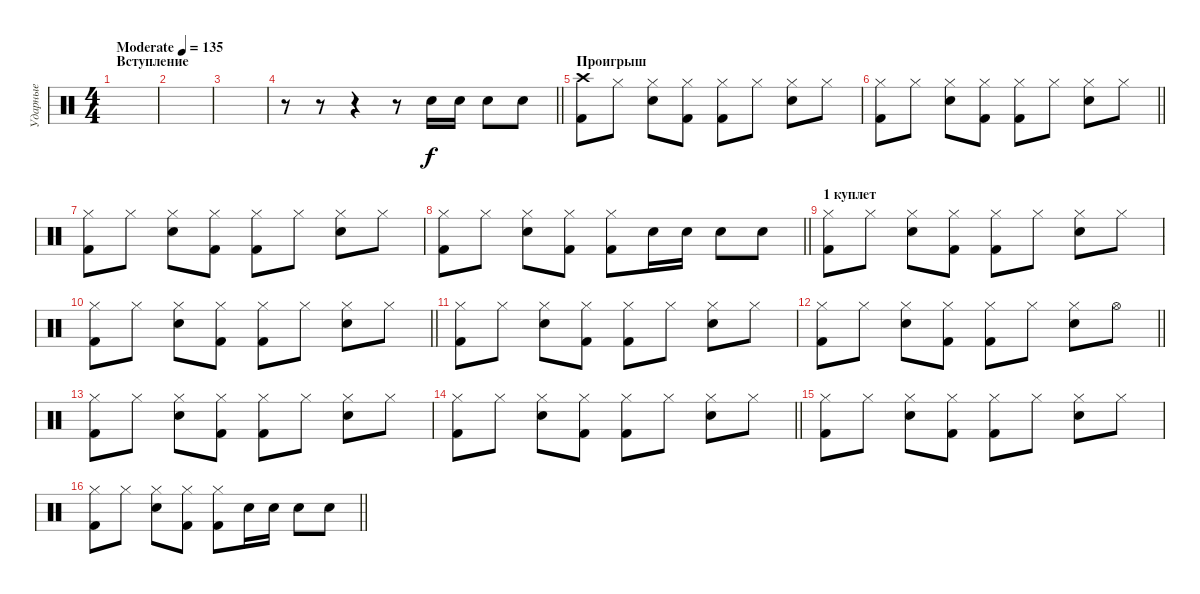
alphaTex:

\track ("Ударные" "Ударные") {instrument percussion}
\staff {score}
\articulation defaults
\ts (4 4)
\section ("" "Вступление")
\tempo (135 "Moderate")
\clef neutral
\ks c
|
|
|
\barLineRight lightlight
r.8 r.8 r.4 r.8 "Snare (hit) 2".16 "Snare (hit) 2".16 "Snare (hit) 2".8 "Snare (hit) 2".8 |
\section ("" "Проигрыш")
("Crash high (hit)" "Kick (hit) 2").8 "Hi-Hat (closed)".8 ("Hi-Hat (closed)" "Snare (hit) 2").8 ("Hi-Hat (closed)" "Kick (hit) 2").8 ("Hi-Hat (closed)" "Kick (hit) 2").8 "Hi-Hat (closed)".8 ("Hi-Hat (closed)" "Snare (hit) 2").8 "Hi-Hat (closed)".8 |
\barLineRight lightlight
("Hi-Hat (closed)" "Kick (hit) 2").8 "Hi-Hat (closed)".8 ("Hi-Hat (closed)" "Snare (hit) 2").8 ("Hi-Hat (closed)" "Kick (hit) 2").8 ("Hi-Hat (closed)" "Kick (hit) 2").8 "Hi-Hat (closed)".8 ("Hi-Hat (closed)" "Snare (hit) 2").8 "Hi-Hat (closed)".8 |
("Hi-Hat (closed)" "Kick (hit) 2").8 "Hi-Hat (closed)".8 ("Hi-Hat (closed)" "Snare (hit) 2").8 ("Hi-Hat (closed)" "Kick (hit) 2").8 ("Hi-Hat (closed)" "Kick (hit) 2").8 "Hi-Hat (closed)".8 ("Hi-Hat (closed)" "Snare (hit) 2").8 "Hi-Hat (closed)".8 |
\barLineRight lightlight
("Hi-Hat (closed)" "Kick (hit) 2").8 "Hi-Hat (closed)".8 ("Hi-Hat (closed)" "Snare (hit) 2").8 ("Hi-Hat (closed)" "Kick (hit) 2").8 ("Hi-Hat (closed)" "Kick (hit) 2").8 "Snare (hit) 2".16 "Snare (hit) 2".16 "Snare (hit) 2".8 "Snare (hit) 2".8 |
\section ("" "1 куплет")
("Hi-Hat (closed)" "Kick (hit) 2").8 "Hi-Hat (closed)".8 ("Hi-Hat (closed)" "Snare (hit) 2").8 ("Hi-Hat (closed)" "Kick (hit) 2").8 ("Hi-Hat (closed)" "Kick (hit) 2").8 "Hi-Hat (closed)".8 ("Hi-Hat (closed)" "Snare (hit) 2").8 "Hi-Hat (closed)".8 |
\barLineRight lightlight
("Hi-Hat (closed)" "Kick (hit) 2").8 "Hi-Hat (closed)".8 ("Hi-Hat (closed)" "Snare (hit) 2").8 ("Hi-Hat (closed)" "Kick (hit) 2").8 ("Hi-Hat (closed)" "Kick (hit) 2").8 "Hi-Hat (closed)".8 ("Hi-Hat (closed)" "Snare (hit) 2").8 "Hi-Hat (closed)".8 |
("Hi-Hat (closed)" "Kick (hit) 2").8 "Hi-Hat (closed)".8 ("Hi-Hat (closed)" "Snare (hit) 2").8 ("Hi-Hat (closed)" "Kick (hit) 2").8 ("Hi-Hat (closed)" "Kick (hit) 2").8 "Hi-Hat (closed)".8 ("Hi-Hat (closed)" "Snare (hit) 2").8 "Hi-Hat (closed)".8 |
\barLineRight lightlight
("Hi-Hat (closed)" "Kick (hit) 2").8 "Hi-Hat (closed)".8 ("Hi-Hat (closed)" "Snare (hit) 2").8 ("Hi-Hat (closed)" "Kick (hit) 2").8 ("Hi-Hat (closed)" "Kick (hit) 2").8 "Hi-Hat (closed)".8 ("Hi-Hat (closed)" "Snare (hit) 2").8 "Hi-Hat (open)".8 |
("Hi-Hat (closed)" "Kick (hit) 2").8 "Hi-Hat (closed)".8 ("Hi-Hat (closed)" "Snare (hit) 2").8 ("Hi-Hat (closed)" "Kick (hit) 2").8 ("Hi-Hat (closed)" "Kick (hit) 2").8 "Hi-Hat (closed)".8 ("Hi-Hat (closed)" "Snare (hit) 2").8 "Hi-Hat (closed)".8 |
\barLineRight lightlight
("Hi-Hat (closed)" "Kick (hit) 2").8 "Hi-Hat (closed)".8 ("Hi-Hat (closed)" "Snare (hit) 2").8 ("Hi-Hat (closed)" "Kick (hit) 2").8 ("Hi-Hat (closed)" "Kick (hit) 2").8 "Hi-Hat (closed)".8 ("Hi-Hat (closed)" "Snare (hit) 2").8 "Hi-Hat (closed)".8 |
("Hi-Hat (closed)" "Kick (hit) 2").8 "Hi-Hat (closed)".8 ("Hi-Hat (closed)" "Snare (hit) 2").8 ("Hi-Hat (closed)" "Kick (hit) 2").8 ("Hi-Hat (closed)" "Kick (hit) 2").8 "Hi-Hat (closed)".8 ("Hi-Hat (closed)" "Snare (hit) 2").8 "Hi-Hat (closed)".8 |
\barLineRight lightlight
("Hi-Hat (closed)" "Kick (hit) 2").8 "Hi-Hat (closed)".8 ("Hi-Hat (closed)" "Snare (hit) 2").8 ("Hi-Hat (closed)" "Kick (hit) 2").8 ("Hi-Hat (closed)" "Kick (hit) 2").8 "Snare (hit) 2".16 "Snare (hit) 2".16 "Snare (hit) 2".8 "Snare (hit) 2".8
